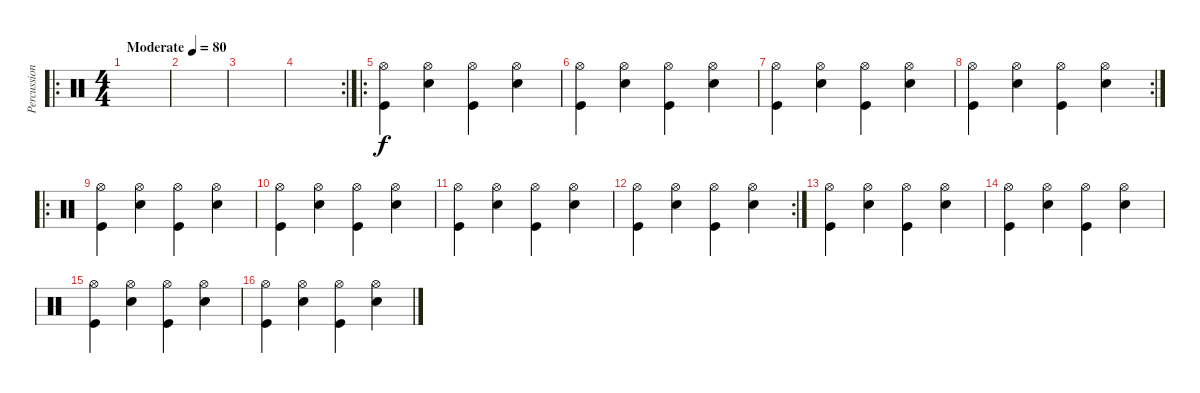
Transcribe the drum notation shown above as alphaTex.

\track ("Percussion" "Percussion") {instrument percussion}
\staff {score}
\articulation defaults
\ro
\ts (4 4)
\tempo (80 "Moderate")
\clef neutral
\ks c
|
|
|
\rc 2
|
\ro
("Hi-Hat (open)" "Kick (hit)").4 ("Hi-Hat (open)" "Electric Snare (hit)").4 ("Hi-Hat (open)" "Kick (hit)").4 ("Hi-Hat (open)" "Electric Snare (hit)").4 |
("Hi-Hat (open)" "Kick (hit)").4 ("Hi-Hat (open)" "Electric Snare (hit)").4 ("Hi-Hat (open)" "Kick (hit)").4 ("Hi-Hat (open)" "Electric Snare (hit)").4 |
("Hi-Hat (open)" "Kick (hit)").4 ("Hi-Hat (open)" "Electric Snare (hit)").4 ("Hi-Hat (open)" "Kick (hit)").4 ("Hi-Hat (open)" "Electric Snare (hit)").4 |
\rc 2
("Hi-Hat (open)" "Kick (hit)").4 ("Hi-Hat (open)" "Electric Snare (hit)").4 ("Hi-Hat (open)" "Kick (hit)").4 ("Hi-Hat (open)" "Electric Snare (hit)").4 |
\ro
("Hi-Hat (open)" "Kick (hit)").4 ("Hi-Hat (open)" "Electric Snare (hit)").4 ("Hi-Hat (open)" "Kick (hit)").4 ("Hi-Hat (open)" "Electric Snare (hit)").4 |
("Hi-Hat (open)" "Kick (hit)").4 ("Hi-Hat (open)" "Electric Snare (hit)").4 ("Hi-Hat (open)" "Kick (hit)").4 ("Hi-Hat (open)" "Electric Snare (hit)").4 |
("Hi-Hat (open)" "Kick (hit)").4 ("Hi-Hat (open)" "Electric Snare (hit)").4 ("Hi-Hat (open)" "Kick (hit)").4 ("Hi-Hat (open)" "Electric Snare (hit)").4 |
\rc 2
("Hi-Hat (open)" "Kick (hit)").4 ("Hi-Hat (open)" "Electric Snare (hit)").4 ("Hi-Hat (open)" "Kick (hit)").4 ("Hi-Hat (open)" "Electric Snare (hit)").4 |
("Hi-Hat (open)" "Kick (hit)").4 ("Hi-Hat (open)" "Electric Snare (hit)").4 ("Hi-Hat (open)" "Kick (hit)").4 ("Hi-Hat (open)" "Electric Snare (hit)").4 |
("Hi-Hat (open)" "Kick (hit)").4 ("Hi-Hat (open)" "Electric Snare (hit)").4 ("Hi-Hat (open)" "Kick (hit)").4 ("Hi-Hat (open)" "Electric Snare (hit)").4 |
("Hi-Hat (open)" "Kick (hit)").4 ("Hi-Hat (open)" "Electric Snare (hit)").4 ("Hi-Hat (open)" "Kick (hit)").4 ("Hi-Hat (open)" "Electric Snare (hit)").4 |
("Hi-Hat (open)" "Kick (hit)").4 ("Hi-Hat (open)" "Electric Snare (hit)").4 ("Hi-Hat (open)" "Kick (hit)").4 ("Hi-Hat (open)" "Electric Snare (hit)").4
